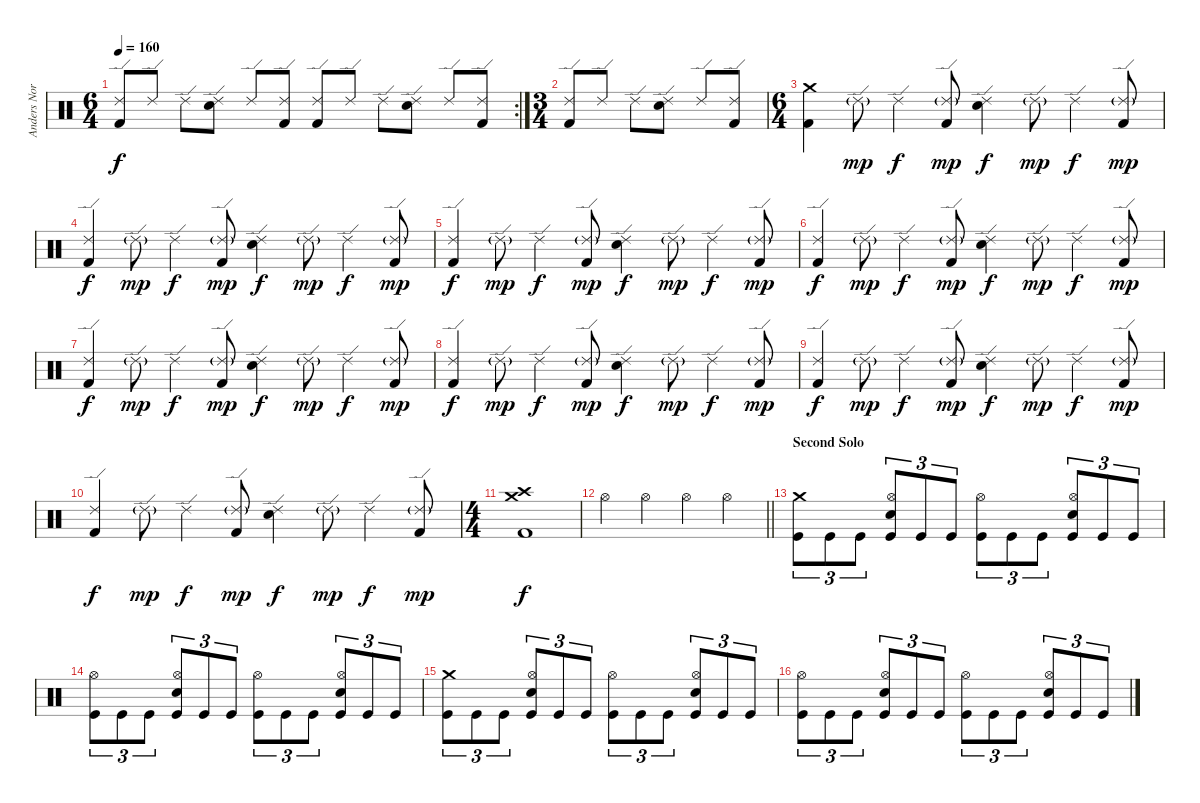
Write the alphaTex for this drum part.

\track ("Anders Nordin" "Anders Nor") {instrument percussion}
\staff {score}
\articulation defaults
\rc 2
\ts (6 4)
\tempo 160
\clef neutral
\ks c
("Ride (edge) 2" "Kick (hit) 2").8{dy f} "Ride (edge) 2".8 "Ride (edge) 2".8 ("Ride (edge) 2" "Electric Snare (hit)").8 "Ride (edge) 2".8 ("Ride (edge) 2" "Kick (hit) 2").8 ("Ride (edge) 2" "Kick (hit) 2").8 "Ride (edge) 2".8 "Ride (edge) 2".8 ("Ride (edge) 2" "Electric Snare (hit)").8 "Ride (edge) 2".8 ("Ride (edge) 2" "Kick (hit) 2").8 |
\ts (3 4)
("Ride (edge) 2" "Kick (hit) 2").8 "Ride (edge) 2".8 "Ride (edge) 2".8 ("Ride (edge) 2" "Electric Snare (hit)").8 "Ride (edge) 2".8 ("Ride (edge) 2" "Kick (hit) 2").8 |
\ts (6 4)
("Crash medium (hit)" "Kick (hit) 2").4 "Ride (edge) 2"{g}.8{dy mp} "Ride (edge) 2".4{dy f} ("Ride (edge) 2"{g} "Kick (hit) 2").8{dy mp} ("Ride (edge) 2" "Electric Snare (hit)").4{dy f} "Ride (edge) 2"{g}.8{dy mp} "Ride (edge) 2".4{dy f} ("Ride (edge) 2"{g} "Kick (hit) 2").8{dy mp} |
("Ride (edge) 2" "Kick (hit) 2").4{dy f} "Ride (edge) 2"{g}.8{dy mp} "Ride (edge) 2".4{dy f} ("Ride (edge) 2"{g} "Kick (hit) 2").8{dy mp} ("Ride (edge) 2" "Electric Snare (hit)").4{dy f} "Ride (edge) 2"{g}.8{dy mp} "Ride (edge) 2".4{dy f} ("Ride (edge) 2"{g} "Kick (hit) 2").8{dy mp} |
("Ride (edge) 2" "Kick (hit) 2").4{dy f} "Ride (edge) 2"{g}.8{dy mp} "Ride (edge) 2".4{dy f} ("Ride (edge) 2"{g} "Kick (hit) 2").8{dy mp} ("Ride (edge) 2" "Electric Snare (hit)").4{dy f} "Ride (edge) 2"{g}.8{dy mp} "Ride (edge) 2".4{dy f} ("Ride (edge) 2"{g} "Kick (hit) 2").8{dy mp} |
("Ride (edge) 2" "Kick (hit) 2").4{dy f} "Ride (edge) 2"{g}.8{dy mp} "Ride (edge) 2".4{dy f} ("Ride (edge) 2"{g} "Kick (hit) 2").8{dy mp} ("Ride (edge) 2" "Electric Snare (hit)").4{dy f} "Ride (edge) 2"{g}.8{dy mp} "Ride (edge) 2".4{dy f} ("Ride (edge) 2"{g} "Kick (hit) 2").8{dy mp} |
("Ride (edge) 2" "Kick (hit) 2").4{dy f} "Ride (edge) 2"{g}.8{dy mp} "Ride (edge) 2".4{dy f} ("Ride (edge) 2"{g} "Kick (hit) 2").8{dy mp} ("Ride (edge) 2" "Electric Snare (hit)").4{dy f} "Ride (edge) 2"{g}.8{dy mp} "Ride (edge) 2".4{dy f} ("Ride (edge) 2"{g} "Kick (hit) 2").8{dy mp} |
("Ride (edge) 2" "Kick (hit) 2").4{dy f} "Ride (edge) 2"{g}.8{dy mp} "Ride (edge) 2".4{dy f} ("Ride (edge) 2"{g} "Kick (hit) 2").8{dy mp} ("Ride (edge) 2" "Electric Snare (hit)").4{dy f} "Ride (edge) 2"{g}.8{dy mp} "Ride (edge) 2".4{dy f} ("Ride (edge) 2"{g} "Kick (hit) 2").8{dy mp} |
("Ride (edge) 2" "Kick (hit) 2").4{dy f} "Ride (edge) 2"{g}.8{dy mp} "Ride (edge) 2".4{dy f} ("Ride (edge) 2"{g} "Kick (hit) 2").8{dy mp} ("Ride (edge) 2" "Electric Snare (hit)").4{dy f} "Ride (edge) 2"{g}.8{dy mp} "Ride (edge) 2".4{dy f} ("Ride (edge) 2"{g} "Kick (hit) 2").8{dy mp} |
("Ride (edge) 2" "Kick (hit) 2").4{dy f} "Ride (edge) 2"{g}.8{dy mp} "Ride (edge) 2".4{dy f} ("Ride (edge) 2"{g} "Kick (hit) 2").8{dy mp} ("Ride (edge) 2" "Electric Snare (hit)").4{dy f} "Ride (edge) 2"{g}.8{dy mp} "Ride (edge) 2".4{dy f} ("Ride (edge) 2"{g} "Kick (hit) 2").8{dy mp} |
\ts (4 4)
("Crash medium (hit)" "Crash high (hit)" "Kick (hit) 2").1{dy f} |
\barLineRight lightlight "Hi-Hat (open)".4 "Hi-Hat (open)".4 "Hi-Hat (open)".4 "Hi-Hat (open)".4
|
\section ("" "Second Solo")
("Crash medium (hit)" "Kick (hit)").8{tu (3 2)} "Kick (hit)".8{tu (3 2)} "Kick (hit)".8{tu (3 2)} ("Hi-Hat (open)" "Electric Snare (hit)" "Kick (hit)").8{tu (3 2)} "Kick (hit)".8{tu (3 2)} "Kick (hit)".8{tu (3 2)} ("Hi-Hat (open)" "Kick (hit)").8{tu (3 2)} "Kick (hit)".8{tu (3 2)} "Kick (hit)".8{tu (3 2)} ("Hi-Hat (open)" "Electric Snare (hit)" "Kick (hit)").8{tu (3 2)} "Kick (hit)".8{tu (3 2)} "Kick (hit)".8{tu (3 2)} |
("Hi-Hat (open)" "Kick (hit)").8{tu (3 2)} "Kick (hit)".8{tu (3 2)} "Kick (hit)".8{tu (3 2)} ("Hi-Hat (open)" "Electric Snare (hit)" "Kick (hit)").8{tu (3 2)} "Kick (hit)".8{tu (3 2)} "Kick (hit)".8{tu (3 2)} ("Hi-Hat (open)" "Kick (hit)").8{tu (3 2)} "Kick (hit)".8{tu (3 2)} "Kick (hit)".8{tu (3 2)} ("Hi-Hat (open)" "Electric Snare (hit)" "Kick (hit)").8{tu (3 2)} "Kick (hit)".8{tu (3 2)} "Kick (hit)".8{tu (3 2)} |
("Crash medium (hit)" "Kick (hit)").8{tu (3 2)} "Kick (hit)".8{tu (3 2)} "Kick (hit)".8{tu (3 2)} ("Hi-Hat (open)" "Electric Snare (hit)" "Kick (hit)").8{tu (3 2)} "Kick (hit)".8{tu (3 2)} "Kick (hit)".8{tu (3 2)} ("Hi-Hat (open)" "Kick (hit)").8{tu (3 2)} "Kick (hit)".8{tu (3 2)} "Kick (hit)".8{tu (3 2)} ("Hi-Hat (open)" "Electric Snare (hit)" "Kick (hit)").8{tu (3 2)} "Kick (hit)".8{tu (3 2)} "Kick (hit)".8{tu (3 2)} |
("Hi-Hat (open)" "Kick (hit)").8{tu (3 2)} "Kick (hit)".8{tu (3 2)} "Kick (hit)".8{tu (3 2)} ("Hi-Hat (open)" "Electric Snare (hit)" "Kick (hit)").8{tu (3 2)} "Kick (hit)".8{tu (3 2)} "Kick (hit)".8{tu (3 2)} ("Hi-Hat (open)" "Kick (hit)").8{tu (3 2)} "Kick (hit)".8{tu (3 2)} "Kick (hit)".8{tu (3 2)} ("Hi-Hat (open)" "Electric Snare (hit)" "Kick (hit)").8{tu (3 2)} "Kick (hit)".8{tu (3 2)} "Kick (hit)".8{tu (3 2)}
